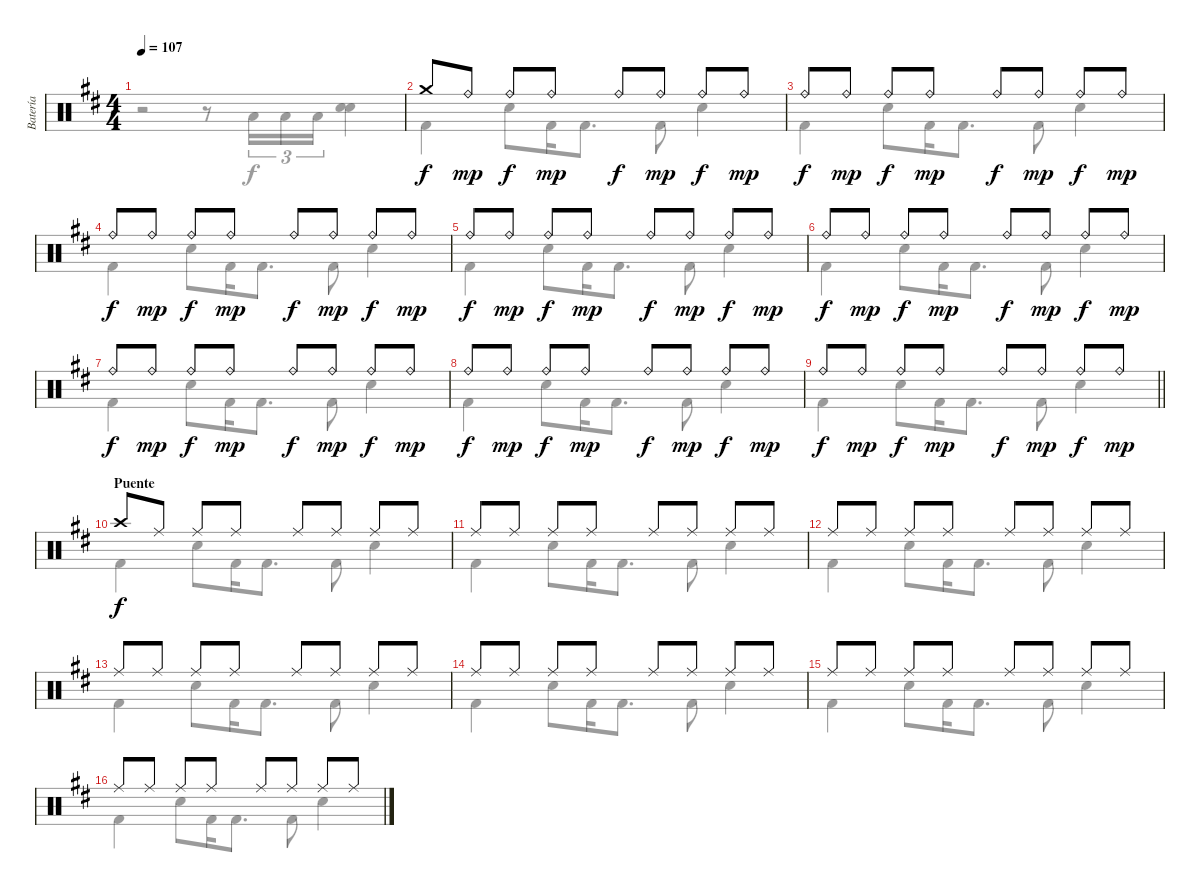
\track ("Batería" "Batería") {instrument percussion}
\staff {score}
\articulation defaults
\voice
\ts (4 4)
\tempo 107
\clef neutral
\ks d
|
"Crash medium (hit)".8 "Ride (bell)".8{dy mp} "Ride (bell)".8{dy f} "Ride (bell)".8{dy mp} "Ride (bell)".8{dy f} "Ride (bell)".8{dy mp} "Ride (bell)".8{dy f} "Ride (bell)".8{dy mp} |
"Ride (bell)".8{dy f} "Ride (bell)".8{dy mp} "Ride (bell)".8{dy f} "Ride (bell)".8{dy mp} "Ride (bell)".8{dy f} "Ride (bell)".8{dy mp} "Ride (bell)".8{dy f} "Ride (bell)".8{dy mp} |
"Ride (bell)".8{dy f} "Ride (bell)".8{dy mp} "Ride (bell)".8{dy f} "Ride (bell)".8{dy mp} "Ride (bell)".8{dy f} "Ride (bell)".8{dy mp} "Ride (bell)".8{dy f} "Ride (bell)".8{dy mp} |
"Ride (bell)".8{dy f} "Ride (bell)".8{dy mp} "Ride (bell)".8{dy f} "Ride (bell)".8{dy mp} "Ride (bell)".8{dy f} "Ride (bell)".8{dy mp} "Ride (bell)".8{dy f} "Ride (bell)".8{dy mp} |
"Ride (bell)".8{dy f} "Ride (bell)".8{dy mp} "Ride (bell)".8{dy f} "Ride (bell)".8{dy mp} "Ride (bell)".8{dy f} "Ride (bell)".8{dy mp} "Ride (bell)".8{dy f} "Ride (bell)".8{dy mp} |
"Ride (bell)".8{dy f} "Ride (bell)".8{dy mp} "Ride (bell)".8{dy f} "Ride (bell)".8{dy mp} "Ride (bell)".8{dy f} "Ride (bell)".8{dy mp} "Ride (bell)".8{dy f} "Ride (bell)".8{dy mp} |
"Ride (bell)".8{dy f} "Ride (bell)".8{dy mp} "Ride (bell)".8{dy f} "Ride (bell)".8{dy mp} "Ride (bell)".8{dy f} "Ride (bell)".8{dy mp} "Ride (bell)".8{dy f} "Ride (bell)".8{dy mp} |
\barLineRight lightlight "Ride (bell)".8{dy f} "Ride (bell)".8{dy mp} "Ride (bell)".8{dy f} "Ride (bell)".8{dy mp} "Ride (bell)".8{dy f} "Ride (bell)".8{dy mp} "Ride (bell)".8{dy f} "Ride (bell)".8{dy mp}
|
\section ("" "Puente")
"Crash high (hit)".8{dy f} "Ride (middle)".8 "Ride (middle)".8 "Ride (middle)".8 "Ride (middle)".8 "Ride (middle)".8 "Ride (middle)".8 "Ride (middle)".8 |
"Ride (middle)".8 "Ride (middle)".8 "Ride (middle)".8 "Ride (middle)".8 "Ride (middle)".8 "Ride (middle)".8 "Ride (middle)".8 "Ride (middle)".8 |
"Ride (middle)".8 "Ride (middle)".8 "Ride (middle)".8 "Ride (middle)".8 "Ride (middle)".8 "Ride (middle)".8 "Ride (middle)".8 "Ride (middle)".8 |
"Ride (middle)".8 "Ride (middle)".8 "Ride (middle)".8 "Ride (middle)".8 "Ride (middle)".8 "Ride (middle)".8 "Ride (middle)".8 "Ride (middle)".8 |
"Ride (middle)".8 "Ride (middle)".8 "Ride (middle)".8 "Ride (middle)".8 "Ride (middle)".8 "Ride (middle)".8 "Ride (middle)".8 "Ride (middle)".8 |
"Ride (middle)".8 "Ride (middle)".8 "Ride (middle)".8 "Ride (middle)".8 "Ride (middle)".8 "Ride (middle)".8 "Ride (middle)".8 "Ride (middle)".8 |
"Ride (middle)".8 "Ride (middle)".8 "Ride (middle)".8 "Ride (middle)".8 "Ride (middle)".8 "Ride (middle)".8 "Ride (middle)".8 "Ride (middle)".8
\voice
\clef neutral
\ottava regular
\simile none
\ks d
r.2{dy f} r.8 "Low Floor Tom (hit)".16{tu (3 2)} "Low Floor Tom (hit)".16{tu (3 2)} "Low Floor Tom (hit)".16{tu (3 2)} ("Snare (hit) 2" "Snare (hit) 2").4{bd 120} |
"Kick (hit) 2".4 "Snare (hit) 2".8 "Kick (hit) 2".16 "Kick (hit) 2".8{d} "Kick (hit) 2".8 "Snare (hit) 2".4 |
"Kick (hit) 2".4 "Snare (hit) 2".8 "Kick (hit) 2".16 "Kick (hit) 2".8{d} "Kick (hit) 2".8 "Snare (hit) 2".4 |
"Kick (hit) 2".4 "Snare (hit) 2".8 "Kick (hit) 2".16 "Kick (hit) 2".8{d} "Kick (hit) 2".8 "Snare (hit) 2".4 |
"Kick (hit) 2".4 "Snare (hit) 2".8 "Kick (hit) 2".16 "Kick (hit) 2".8{d} "Kick (hit) 2".8 "Snare (hit) 2".4 |
"Kick (hit) 2".4 "Snare (hit) 2".8 "Kick (hit) 2".16 "Kick (hit) 2".8{d} "Kick (hit) 2".8 "Snare (hit) 2".4 |
"Kick (hit) 2".4 "Snare (hit) 2".8 "Kick (hit) 2".16 "Kick (hit) 2".8{d} "Kick (hit) 2".8 "Snare (hit) 2".4 |
"Kick (hit) 2".4 "Snare (hit) 2".8 "Kick (hit) 2".16 "Kick (hit) 2".8{d} "Kick (hit) 2".8 "Snare (hit) 2".4 |
\barLineRight lightlight "Kick (hit) 2".4 "Snare (hit) 2".8 "Kick (hit) 2".16 "Kick (hit) 2".8{d} "Kick (hit) 2".8 "Snare (hit) 2".4
|
"Kick (hit) 2".4 "Snare (hit) 2".8 "Kick (hit) 2".16 "Kick (hit) 2".8{d} "Kick (hit) 2".8 "Snare (hit) 2".4 |
"Kick (hit) 2".4 "Snare (hit) 2".8 "Kick (hit) 2".16 "Kick (hit) 2".8{d} "Kick (hit) 2".8 "Snare (hit) 2".4 |
"Kick (hit) 2".4 "Snare (hit) 2".8 "Kick (hit) 2".16 "Kick (hit) 2".8{d} "Kick (hit) 2".8 "Snare (hit) 2".4 |
"Kick (hit) 2".4 "Snare (hit) 2".8 "Kick (hit) 2".16 "Kick (hit) 2".8{d} "Kick (hit) 2".8 "Snare (hit) 2".4 |
"Kick (hit) 2".4 "Snare (hit) 2".8 "Kick (hit) 2".16 "Kick (hit) 2".8{d} "Kick (hit) 2".8 "Snare (hit) 2".4 |
"Kick (hit) 2".4 "Snare (hit) 2".8 "Kick (hit) 2".16 "Kick (hit) 2".8{d} "Kick (hit) 2".8 "Snare (hit) 2".4 |
"Kick (hit) 2".4 "Snare (hit) 2".8 "Kick (hit) 2".16 "Kick (hit) 2".8{d} "Kick (hit) 2".8 "Snare (hit) 2".4
